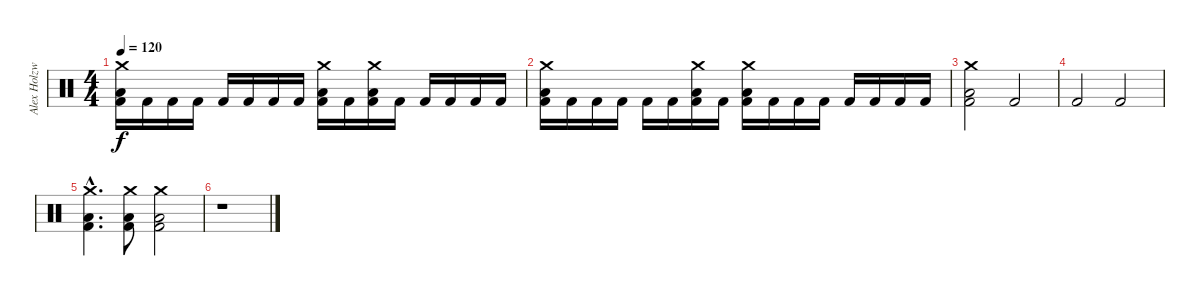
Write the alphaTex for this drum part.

\track ("Alex Holzwarth - Drums" "Alex Holzw") {instrument percussion}
\staff {score}
\articulation defaults
\ts (4 4)
\tempo 120
\clef neutral
\ks c
("Crash medium (hit)" "Low Floor Tom (hit)" "Kick (hit) 2").16{dy f} "Kick (hit) 2".16 "Kick (hit) 2".16 "Kick (hit) 2".16 "Kick (hit) 2".16 "Kick (hit) 2".16 "Kick (hit) 2".16 "Kick (hit) 2".16 ("Crash medium (hit)" "Low Floor Tom (hit)" "Kick (hit) 2").16 "Kick (hit) 2".16 ("Crash medium (hit)" "Low Floor Tom (hit)" "Kick (hit) 2").16 "Kick (hit) 2".16 "Kick (hit) 2".16 "Kick (hit) 2".16 "Kick (hit) 2".16 "Kick (hit) 2".16 |
("Crash medium (hit)" "Low Floor Tom (hit)" "Kick (hit) 2").16 "Kick (hit) 2".16 "Kick (hit) 2".16 "Kick (hit) 2".16 "Kick (hit) 2".16 "Kick (hit) 2".16 ("Crash medium (hit)" "Low Floor Tom (hit)" "Kick (hit) 2").16 "Kick (hit) 2".16 ("Crash medium (hit)" "Low Floor Tom (hit)" "Kick (hit) 2").16 "Kick (hit) 2".16 "Kick (hit) 2".16 "Kick (hit) 2".16 "Kick (hit) 2".16 "Kick (hit) 2".16 "Kick (hit) 2".16 "Kick (hit) 2".16 |
("Crash medium (hit)" "Low Floor Tom (hit)" "Kick (hit) 2").2 "Kick (hit) 2".2 |
"Kick (hit) 2".2 "Kick (hit) 2".2 |
("Crash medium (hit)"{hac} "Low Floor Tom (hit)"{hac} "Kick (hit) 2"{hac}).4{d} ("Crash medium (hit)" "Low Floor Tom (hit)" "Kick (hit) 2").8 ("Crash medium (hit)" "Low Floor Tom (hit)" "Kick (hit) 2").2 |
r.1
